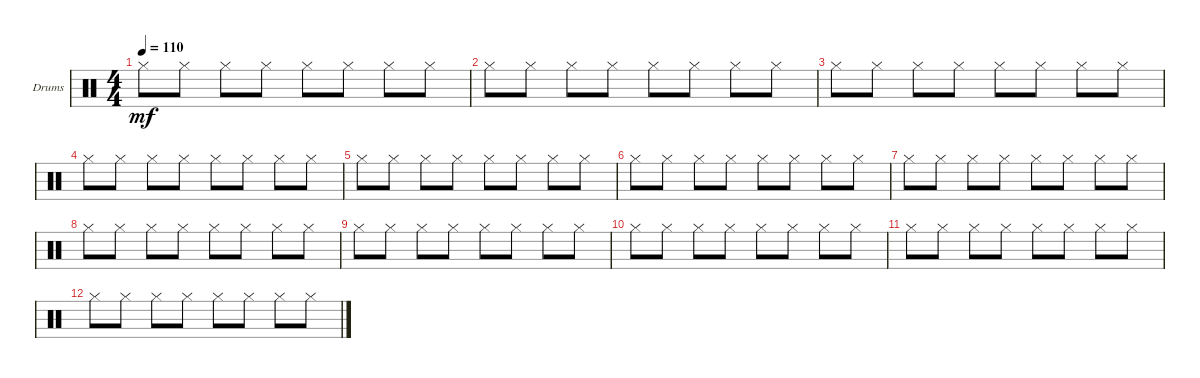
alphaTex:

\defaultSystemsLayout 4
\bracketExtendMode groupsimilarinstruments
\firstSystemTrackNameOrientation horizontal
\otherSystemsTrackNameOrientation horizontal
\track ("Brum auxiliar" "Drums") {instrument percussion}
\staff {score}
\articulation defaults
\ts (4 4)
\tempo 110
\clef neutral
\scale
0.333333
\ks c "Hi-Hat (closed)".8{dy mf} "Hi-Hat (closed)".8 "Hi-Hat (closed)".8 "Hi-Hat (closed)".8 "Hi-Hat (closed)".8 "Hi-Hat (closed)".8 "Hi-Hat (closed)".8 "Hi-Hat (closed)".8
|
\scale
0.333333 "Hi-Hat (closed)".8 "Hi-Hat (closed)".8 "Hi-Hat (closed)".8 "Hi-Hat (closed)".8 "Hi-Hat (closed)".8 "Hi-Hat (closed)".8 "Hi-Hat (closed)".8 "Hi-Hat (closed)".8 |
\scale
0.333333 "Hi-Hat (closed)".8 "Hi-Hat (closed)".8 "Hi-Hat (closed)".8 "Hi-Hat (closed)".8 "Hi-Hat (closed)".8 "Hi-Hat (closed)".8 "Hi-Hat (closed)".8 "Hi-Hat (closed)".8 |
\scale
0.333333 "Hi-Hat (closed)".8 "Hi-Hat (closed)".8 "Hi-Hat (closed)".8 "Hi-Hat (closed)".8 "Hi-Hat (closed)".8 "Hi-Hat (closed)".8 "Hi-Hat (closed)".8 "Hi-Hat (closed)".8 |
\scale
0.333333 "Hi-Hat (closed)".8 "Hi-Hat (closed)".8 "Hi-Hat (closed)".8 "Hi-Hat (closed)".8 "Hi-Hat (closed)".8 "Hi-Hat (closed)".8 "Hi-Hat (closed)".8 "Hi-Hat (closed)".8 |
\scale
0.333333 "Hi-Hat (closed)".8 "Hi-Hat (closed)".8 "Hi-Hat (closed)".8 "Hi-Hat (closed)".8 "Hi-Hat (closed)".8 "Hi-Hat (closed)".8 "Hi-Hat (closed)".8 "Hi-Hat (closed)".8 |
\scale
0.333333 "Hi-Hat (closed)".8 "Hi-Hat (closed)".8 "Hi-Hat (closed)".8 "Hi-Hat (closed)".8 "Hi-Hat (closed)".8 "Hi-Hat (closed)".8 "Hi-Hat (closed)".8 "Hi-Hat (closed)".8 |
\scale
0.333333 "Hi-Hat (closed)".8 "Hi-Hat (closed)".8 "Hi-Hat (closed)".8 "Hi-Hat (closed)".8 "Hi-Hat (closed)".8 "Hi-Hat (closed)".8 "Hi-Hat (closed)".8 "Hi-Hat (closed)".8 |
\scale
0.333333 "Hi-Hat (closed)".8 "Hi-Hat (closed)".8 "Hi-Hat (closed)".8 "Hi-Hat (closed)".8 "Hi-Hat (closed)".8 "Hi-Hat (closed)".8 "Hi-Hat (closed)".8 "Hi-Hat (closed)".8 |
\scale
0.333333 "Hi-Hat (closed)".8 "Hi-Hat (closed)".8 "Hi-Hat (closed)".8 "Hi-Hat (closed)".8 "Hi-Hat (closed)".8 "Hi-Hat (closed)".8 "Hi-Hat (closed)".8 "Hi-Hat (closed)".8 |
\scale
0.333333 "Hi-Hat (closed)".8 "Hi-Hat (closed)".8 "Hi-Hat (closed)".8 "Hi-Hat (closed)".8 "Hi-Hat (closed)".8 "Hi-Hat (closed)".8 "Hi-Hat (closed)".8 "Hi-Hat (closed)".8 |
\scale
0.333333 "Hi-Hat (closed)".8 "Hi-Hat (closed)".8 "Hi-Hat (closed)".8 "Hi-Hat (closed)".8 "Hi-Hat (closed)".8 "Hi-Hat (closed)".8 "Hi-Hat (closed)".8 "Hi-Hat (closed)".8
